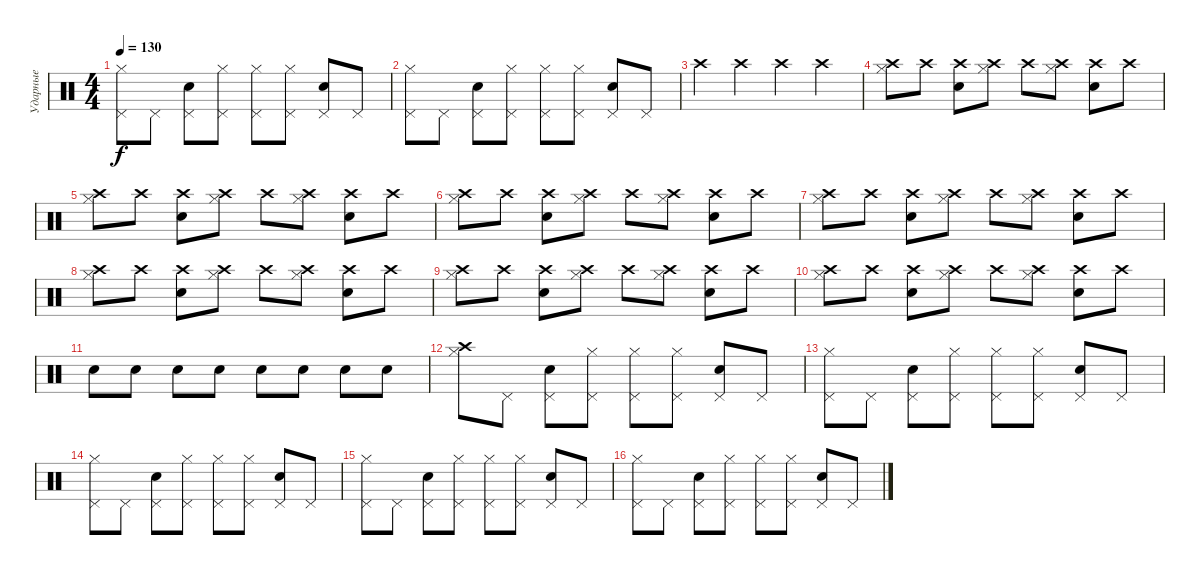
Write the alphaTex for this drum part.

\track ("Ударные" "Ударные") {instrument percussion}
\staff {score}
\articulation defaults
\ts (4 4)
\tempo 130
\clef neutral
\ks c
("Pedal Hi-Hat (hit)" "Hi-Hat (closed)").8{dy f} "Pedal Hi-Hat (hit)".8 ("Pedal Hi-Hat (hit)" "Snare (hit) 2").8 ("Pedal Hi-Hat (hit)" "Hi-Hat (closed)").8 ("Pedal Hi-Hat (hit)" "Hi-Hat (closed)").8 ("Pedal Hi-Hat (hit)" "Hi-Hat (closed)").8 ("Pedal Hi-Hat (hit)" "Snare (hit) 2").8 "Pedal Hi-Hat (hit)".8 |
("Pedal Hi-Hat (hit)" "Hi-Hat (closed)").8 "Pedal Hi-Hat (hit)".8 ("Pedal Hi-Hat (hit)" "Snare (hit) 2").8 ("Pedal Hi-Hat (hit)" "Hi-Hat (closed)").8 ("Pedal Hi-Hat (hit)" "Hi-Hat (closed)").8 ("Pedal Hi-Hat (hit)" "Hi-Hat (closed)").8 ("Pedal Hi-Hat (hit)" "Snare (hit) 2").8 "Pedal Hi-Hat (hit)".8 |
"Crash high (hit)".4 "Crash high (hit)".4 "Crash high (hit)".4 "Crash high (hit)".4 |
("Hi-Hat (closed)" "Crash high (hit)").8 "Crash high (hit)".8 ("Snare (hit) 2" "Crash high (hit)").8 ("Hi-Hat (closed)" "Crash high (hit)").8 "Crash high (hit)".8 ("Hi-Hat (closed)" "Crash high (hit)").8 ("Snare (hit) 2" "Crash high (hit)").8 "Crash high (hit)".8 |
("Hi-Hat (closed)" "Crash high (hit)").8 "Crash high (hit)".8 ("Snare (hit) 2" "Crash high (hit)").8 ("Hi-Hat (closed)" "Crash high (hit)").8 "Crash high (hit)".8 ("Hi-Hat (closed)" "Crash high (hit)").8 ("Snare (hit) 2" "Crash high (hit)").8 "Crash high (hit)".8 |
("Hi-Hat (closed)" "Crash high (hit)").8 "Crash high (hit)".8 ("Snare (hit) 2" "Crash high (hit)").8 ("Hi-Hat (closed)" "Crash high (hit)").8 "Crash high (hit)".8 ("Hi-Hat (closed)" "Crash high (hit)").8 ("Snare (hit) 2" "Crash high (hit)").8 "Crash high (hit)".8 |
("Hi-Hat (closed)" "Crash high (hit)").8 "Crash high (hit)".8 ("Snare (hit) 2" "Crash high (hit)").8 ("Hi-Hat (closed)" "Crash high (hit)").8 "Crash high (hit)".8 ("Hi-Hat (closed)" "Crash high (hit)").8 ("Snare (hit) 2" "Crash high (hit)").8 "Crash high (hit)".8 |
("Hi-Hat (closed)" "Crash high (hit)").8 "Crash high (hit)".8 ("Snare (hit) 2" "Crash high (hit)").8 ("Hi-Hat (closed)" "Crash high (hit)").8 "Crash high (hit)".8 ("Hi-Hat (closed)" "Crash high (hit)").8 ("Snare (hit) 2" "Crash high (hit)").8 "Crash high (hit)".8 |
("Hi-Hat (closed)" "Crash high (hit)").8 "Crash high (hit)".8 ("Snare (hit) 2" "Crash high (hit)").8 ("Hi-Hat (closed)" "Crash high (hit)").8 "Crash high (hit)".8 ("Hi-Hat (closed)" "Crash high (hit)").8 ("Snare (hit) 2" "Crash high (hit)").8 "Crash high (hit)".8 |
("Hi-Hat (closed)" "Crash high (hit)").8 "Crash high (hit)".8 ("Snare (hit) 2" "Crash high (hit)").8 ("Hi-Hat (closed)" "Crash high (hit)").8 "Crash high (hit)".8 ("Hi-Hat (closed)" "Crash high (hit)").8 ("Snare (hit) 2" "Crash high (hit)").8 "Crash high (hit)".8 |
"Snare (hit) 2".8 "Snare (hit) 2".8 "Snare (hit) 2".8 "Snare (hit) 2".8 "Snare (hit) 2".8 "Snare (hit) 2".8 "Snare (hit) 2".8 "Snare (hit) 2".8 |
("Hi-Hat (closed)" "Crash high (hit)").8 "Pedal Hi-Hat (hit)".8 ("Pedal Hi-Hat (hit)" "Snare (hit) 2").8 ("Pedal Hi-Hat (hit)" "Hi-Hat (closed)").8 ("Pedal Hi-Hat (hit)" "Hi-Hat (closed)").8 ("Pedal Hi-Hat (hit)" "Hi-Hat (closed)").8 ("Pedal Hi-Hat (hit)" "Snare (hit) 2").8 "Pedal Hi-Hat (hit)".8 |
("Pedal Hi-Hat (hit)" "Hi-Hat (closed)").8 "Pedal Hi-Hat (hit)".8 ("Pedal Hi-Hat (hit)" "Snare (hit) 2").8 ("Pedal Hi-Hat (hit)" "Hi-Hat (closed)").8 ("Pedal Hi-Hat (hit)" "Hi-Hat (closed)").8 ("Pedal Hi-Hat (hit)" "Hi-Hat (closed)").8 ("Pedal Hi-Hat (hit)" "Snare (hit) 2").8 "Pedal Hi-Hat (hit)".8 |
("Pedal Hi-Hat (hit)" "Hi-Hat (closed)").8 "Pedal Hi-Hat (hit)".8 ("Pedal Hi-Hat (hit)" "Snare (hit) 2").8 ("Pedal Hi-Hat (hit)" "Hi-Hat (closed)").8 ("Pedal Hi-Hat (hit)" "Hi-Hat (closed)").8 ("Pedal Hi-Hat (hit)" "Hi-Hat (closed)").8 ("Pedal Hi-Hat (hit)" "Snare (hit) 2").8 "Pedal Hi-Hat (hit)".8 |
("Pedal Hi-Hat (hit)" "Hi-Hat (closed)").8 "Pedal Hi-Hat (hit)".8 ("Pedal Hi-Hat (hit)" "Snare (hit) 2").8 ("Pedal Hi-Hat (hit)" "Hi-Hat (closed)").8 ("Pedal Hi-Hat (hit)" "Hi-Hat (closed)").8 ("Pedal Hi-Hat (hit)" "Hi-Hat (closed)").8 ("Pedal Hi-Hat (hit)" "Snare (hit) 2").8 "Pedal Hi-Hat (hit)".8 |
("Pedal Hi-Hat (hit)" "Hi-Hat (closed)").8 "Pedal Hi-Hat (hit)".8 ("Pedal Hi-Hat (hit)" "Snare (hit) 2").8 ("Pedal Hi-Hat (hit)" "Hi-Hat (closed)").8 ("Pedal Hi-Hat (hit)" "Hi-Hat (closed)").8 ("Pedal Hi-Hat (hit)" "Hi-Hat (closed)").8 ("Pedal Hi-Hat (hit)" "Snare (hit) 2").8 "Pedal Hi-Hat (hit)".8
